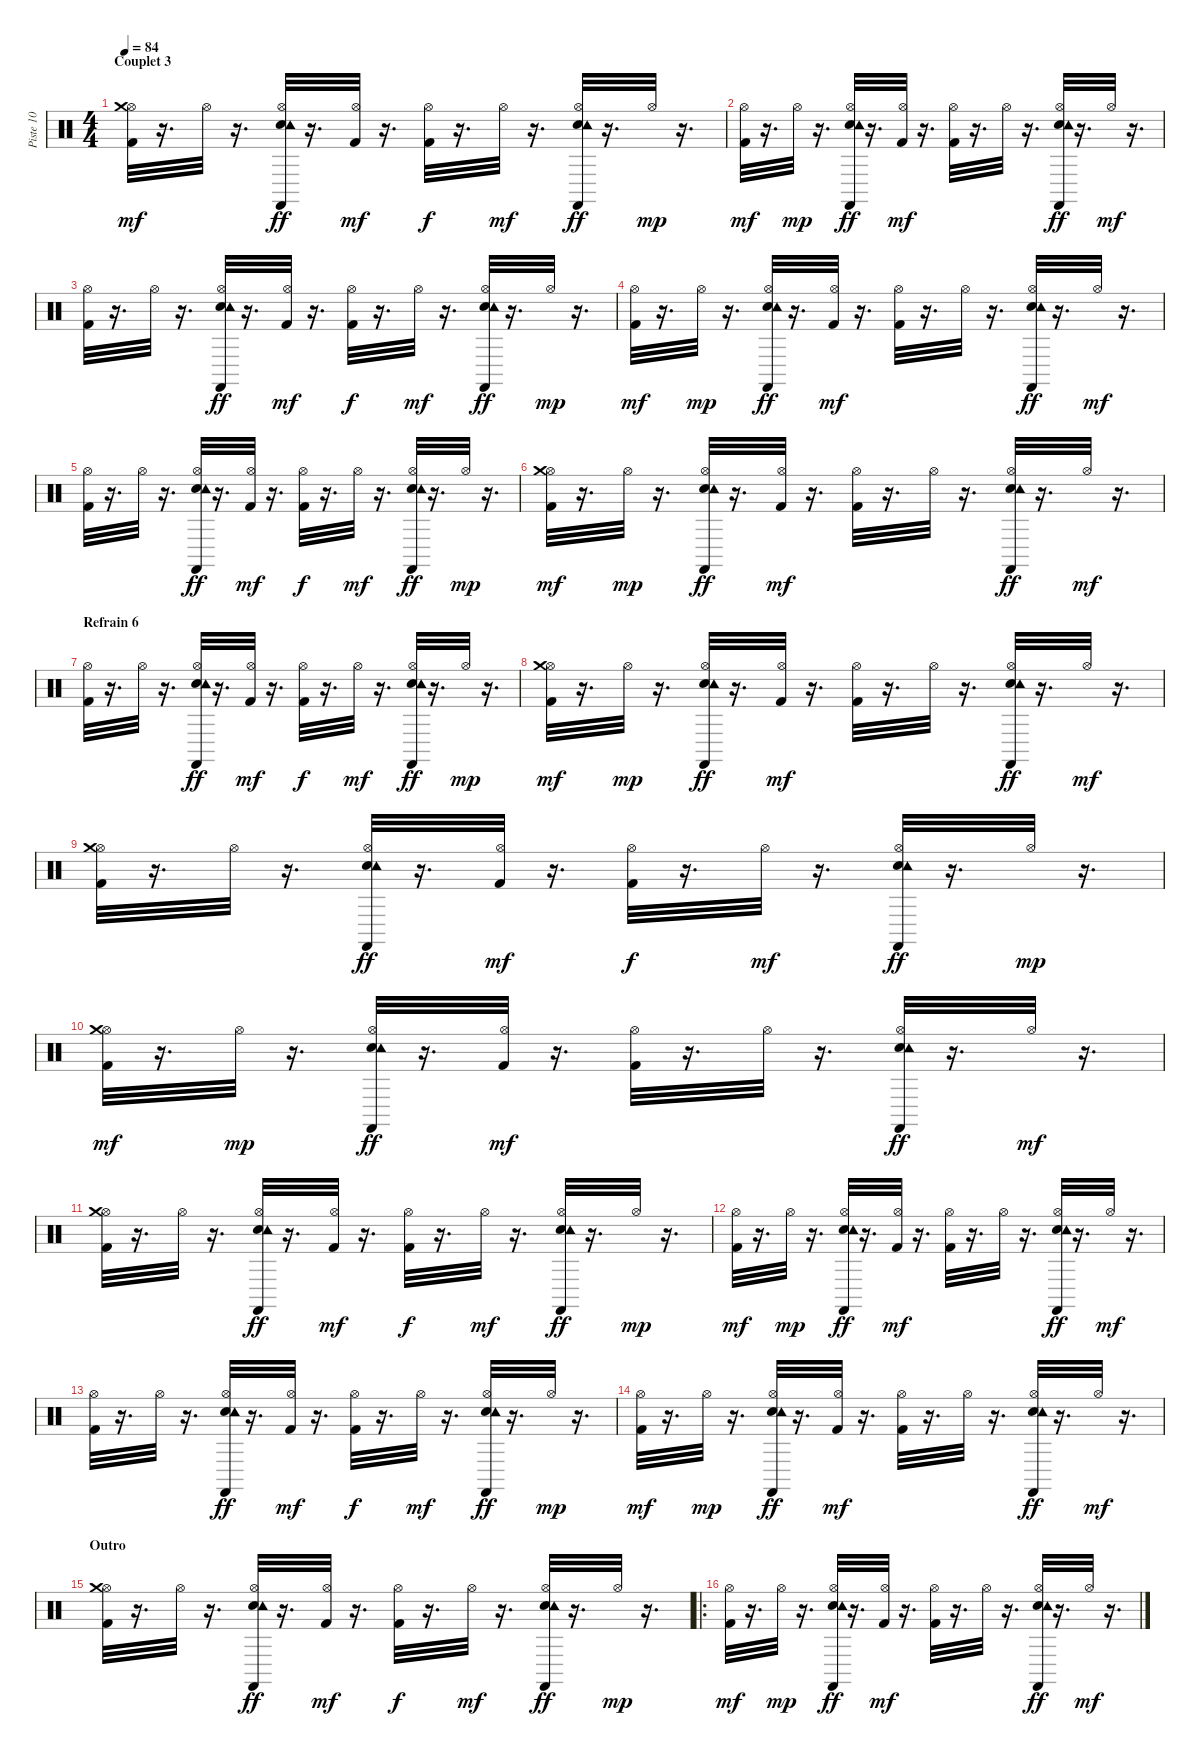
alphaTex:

\track ("Piste 10" "Piste 10") {instrument percussion}
\staff {score}
\articulation defaults
\ts (4 4)
\section ("" "Couplet 3")
\tempo 84
\clef neutral
\ks c
("Kick (hit) 2" "Hi-Hat (open)" "Crash medium (hit)").32{dy mf} r.16{d} "Hi-Hat (open)".32 r.16{d} ("Hi-Hat (open)" "Hand Clap (hit)" "Tambourine (hit)" "Castanets (hit)").32{dy ff} r.16{d} ("Hi-Hat (open)" "Kick (hit) 2").32{dy mf} r.16{d} ("Hi-Hat (open)" "Kick (hit) 2").32{dy f} r.16{d} "Hi-Hat (open)".32{dy mf} r.16{d} ("Hi-Hat (open)" "Hand Clap (hit)" "Tambourine (hit)" "Castanets (hit)").32{dy ff} r.16{d} "Hi-Hat (open)".32{dy mp} r.16{d} |
("Kick (hit) 2" "Hi-Hat (open)").32{dy mf} r.16{d} "Hi-Hat (open)".32{dy mp} r.16{d} ("Hi-Hat (open)" "Hand Clap (hit)" "Tambourine (hit)" "Castanets (hit)").32{dy ff} r.16{d} ("Hi-Hat (open)" "Kick (hit) 2").32{dy mf} r.16{d} ("Hi-Hat (open)" "Kick (hit) 2").32 r.16{d} "Hi-Hat (open)".32 r.16{d} ("Hand Clap (hit)" "Hi-Hat (open)" "Tambourine (hit)" "Castanets (hit)").32{dy ff} r.16{d} "Hi-Hat (open)".32{dy mf} r.16{d} |
("Kick (hit) 2" "Hi-Hat (open)").32 r.16{d} "Hi-Hat (open)".32 r.16{d} ("Hi-Hat (open)" "Hand Clap (hit)" "Tambourine (hit)" "Castanets (hit)").32{dy ff} r.16{d} ("Hi-Hat (open)" "Kick (hit) 2").32{dy mf} r.16{d} ("Hi-Hat (open)" "Kick (hit) 2").32{dy f} r.16{d} "Hi-Hat (open)".32{dy mf} r.16{d} ("Hi-Hat (open)" "Hand Clap (hit)" "Tambourine (hit)" "Castanets (hit)").32{dy ff} r.16{d} "Hi-Hat (open)".32{dy mp} r.16{d} |
("Kick (hit) 2" "Hi-Hat (open)").32{dy mf} r.16{d} "Hi-Hat (open)".32{dy mp} r.16{d} ("Hi-Hat (open)" "Hand Clap (hit)" "Tambourine (hit)" "Castanets (hit)").32{dy ff} r.16{d} ("Hi-Hat (open)" "Kick (hit) 2").32{dy mf} r.16{d} ("Hi-Hat (open)" "Kick (hit) 2").32 r.16{d} "Hi-Hat (open)".32 r.16{d} ("Hand Clap (hit)" "Hi-Hat (open)" "Tambourine (hit)" "Castanets (hit)").32{dy ff} r.16{d} "Hi-Hat (open)".32{dy mf} r.16{d} |
("Kick (hit) 2" "Hi-Hat (open)").32 r.16{d} "Hi-Hat (open)".32 r.16{d} ("Hi-Hat (open)" "Hand Clap (hit)" "Tambourine (hit)" "Castanets (hit)").32{dy ff} r.16{d} ("Hi-Hat (open)" "Kick (hit) 2").32{dy mf} r.16{d} ("Hi-Hat (open)" "Kick (hit) 2").32{dy f} r.16{d} "Hi-Hat (open)".32{dy mf} r.16{d} ("Hi-Hat (open)" "Hand Clap (hit)" "Tambourine (hit)" "Castanets (hit)").32{dy ff} r.16{d} "Hi-Hat (open)".32{dy mp} r.16{d} |
("Kick (hit) 2" "Hi-Hat (open)" "Crash medium (hit)").32{dy mf} r.16{d} "Hi-Hat (open)".32{dy mp} r.16{d} ("Hi-Hat (open)" "Hand Clap (hit)" "Tambourine (hit)" "Castanets (hit)").32{dy ff} r.16{d} ("Hi-Hat (open)" "Kick (hit) 2").32{dy mf} r.16{d} ("Hi-Hat (open)" "Kick (hit) 2").32 r.16{d} "Hi-Hat (open)".32 r.16{d} ("Hand Clap (hit)" "Hi-Hat (open)" "Tambourine (hit)" "Castanets (hit)").32{dy ff} r.16{d} "Hi-Hat (open)".32{dy mf} r.16{d} |
\section ("" "Refrain 6")
("Kick (hit) 2" "Hi-Hat (open)").32 r.16{d} "Hi-Hat (open)".32 r.16{d} ("Hi-Hat (open)" "Hand Clap (hit)" "Tambourine (hit)" "Castanets (hit)").32{dy ff} r.16{d} ("Hi-Hat (open)" "Kick (hit) 2").32{dy mf} r.16{d} ("Hi-Hat (open)" "Kick (hit) 2").32{dy f} r.16{d} "Hi-Hat (open)".32{dy mf} r.16{d} ("Hi-Hat (open)" "Hand Clap (hit)" "Tambourine (hit)" "Castanets (hit)").32{dy ff} r.16{d} "Hi-Hat (open)".32{dy mp} r.16{d} |
("Kick (hit) 2" "Hi-Hat (open)" "Crash medium (hit)").32{dy mf} r.16{d} "Hi-Hat (open)".32{dy mp} r.16{d} ("Hi-Hat (open)" "Hand Clap (hit)" "Tambourine (hit)" "Castanets (hit)").32{dy ff} r.16{d} ("Hi-Hat (open)" "Kick (hit) 2").32{dy mf} r.16{d} ("Hi-Hat (open)" "Kick (hit) 2").32 r.16{d} "Hi-Hat (open)".32 r.16{d} ("Hand Clap (hit)" "Hi-Hat (open)" "Tambourine (hit)" "Castanets (hit)").32{dy ff} r.16{d} "Hi-Hat (open)".32{dy mf} r.16{d} |
("Kick (hit) 2" "Hi-Hat (open)" "Crash medium (hit)").32 r.16{d} "Hi-Hat (open)".32 r.16{d} ("Hi-Hat (open)" "Hand Clap (hit)" "Tambourine (hit)" "Castanets (hit)").32{dy ff} r.16{d} ("Hi-Hat (open)" "Kick (hit) 2").32{dy mf} r.16{d} ("Hi-Hat (open)" "Kick (hit) 2").32{dy f} r.16{d} "Hi-Hat (open)".32{dy mf} r.16{d} ("Hi-Hat (open)" "Hand Clap (hit)" "Tambourine (hit)" "Castanets (hit)").32{dy ff} r.16{d} "Hi-Hat (open)".32{dy mp} r.16{d} |
("Kick (hit) 2" "Hi-Hat (open)" "Crash medium (hit)").32{dy mf} r.16{d} "Hi-Hat (open)".32{dy mp} r.16{d} ("Hi-Hat (open)" "Hand Clap (hit)" "Tambourine (hit)" "Castanets (hit)").32{dy ff} r.16{d} ("Hi-Hat (open)" "Kick (hit) 2").32{dy mf} r.16{d} ("Hi-Hat (open)" "Kick (hit) 2").32 r.16{d} "Hi-Hat (open)".32 r.16{d} ("Hand Clap (hit)" "Hi-Hat (open)" "Tambourine (hit)" "Castanets (hit)").32{dy ff} r.16{d} "Hi-Hat (open)".32{dy mf} r.16{d} |
("Kick (hit) 2" "Hi-Hat (open)" "Crash medium (hit)").32 r.16{d} "Hi-Hat (open)".32 r.16{d} ("Hi-Hat (open)" "Hand Clap (hit)" "Tambourine (hit)" "Castanets (hit)").32{dy ff} r.16{d} ("Hi-Hat (open)" "Kick (hit) 2").32{dy mf} r.16{d} ("Hi-Hat (open)" "Kick (hit) 2").32{dy f} r.16{d} "Hi-Hat (open)".32{dy mf} r.16{d} ("Hi-Hat (open)" "Hand Clap (hit)" "Tambourine (hit)" "Castanets (hit)").32{dy ff} r.16{d} "Hi-Hat (open)".32{dy mp} r.16{d} |
("Kick (hit) 2" "Hi-Hat (open)").32{dy mf} r.16{d} "Hi-Hat (open)".32{dy mp} r.16{d} ("Hi-Hat (open)" "Hand Clap (hit)" "Tambourine (hit)" "Castanets (hit)").32{dy ff} r.16{d} ("Hi-Hat (open)" "Kick (hit) 2").32{dy mf} r.16{d} ("Hi-Hat (open)" "Kick (hit) 2").32 r.16{d} "Hi-Hat (open)".32 r.16{d} ("Hand Clap (hit)" "Hi-Hat (open)" "Tambourine (hit)" "Castanets (hit)").32{dy ff} r.16{d} "Hi-Hat (open)".32{dy mf} r.16{d} |
("Kick (hit) 2" "Hi-Hat (open)").32 r.16{d} "Hi-Hat (open)".32 r.16{d} ("Hi-Hat (open)" "Hand Clap (hit)" "Tambourine (hit)" "Castanets (hit)").32{dy ff} r.16{d} ("Hi-Hat (open)" "Kick (hit) 2").32{dy mf} r.16{d} ("Hi-Hat (open)" "Kick (hit) 2").32{dy f} r.16{d} "Hi-Hat (open)".32{dy mf} r.16{d} ("Hi-Hat (open)" "Hand Clap (hit)" "Tambourine (hit)" "Castanets (hit)").32{dy ff} r.16{d} "Hi-Hat (open)".32{dy mp} r.16{d} |
("Kick (hit) 2" "Hi-Hat (open)").32{dy mf} r.16{d} "Hi-Hat (open)".32{dy mp} r.16{d} ("Hi-Hat (open)" "Hand Clap (hit)" "Tambourine (hit)" "Castanets (hit)").32{dy ff} r.16{d} ("Hi-Hat (open)" "Kick (hit) 2").32{dy mf} r.16{d} ("Hi-Hat (open)" "Kick (hit) 2").32 r.16{d} "Hi-Hat (open)".32 r.16{d} ("Hand Clap (hit)" "Hi-Hat (open)" "Tambourine (hit)" "Castanets (hit)").32{dy ff} r.16{d} "Hi-Hat (open)".32{dy mf} r.16{d} |
\section ("" "Outro")
("Kick (hit) 2" "Hi-Hat (open)" "Crash medium (hit)").32 r.16{d} "Hi-Hat (open)".32 r.16{d} ("Hi-Hat (open)" "Hand Clap (hit)" "Tambourine (hit)" "Castanets (hit)").32{dy ff} r.16{d} ("Hi-Hat (open)" "Kick (hit) 2").32{dy mf} r.16{d} ("Hi-Hat (open)" "Kick (hit) 2").32{dy f} r.16{d} "Hi-Hat (open)".32{dy mf} r.16{d} ("Hi-Hat (open)" "Hand Clap (hit)" "Tambourine (hit)" "Castanets (hit)").32{dy ff} r.16{d} "Hi-Hat (open)".32{dy mp} r.16{d} |
\ro
("Kick (hit) 2" "Hi-Hat (open)").32{dy mf} r.16{d} "Hi-Hat (open)".32{dy mp} r.16{d} ("Hi-Hat (open)" "Hand Clap (hit)" "Tambourine (hit)" "Castanets (hit)").32{dy ff} r.16{d} ("Hi-Hat (open)" "Kick (hit) 2").32{dy mf} r.16{d} ("Hi-Hat (open)" "Kick (hit) 2").32 r.16{d} "Hi-Hat (open)".32 r.16{d} ("Hand Clap (hit)" "Hi-Hat (open)" "Tambourine (hit)" "Castanets (hit)").32{dy ff} r.16{d} "Hi-Hat (open)".32{dy mf} r.16{d}
